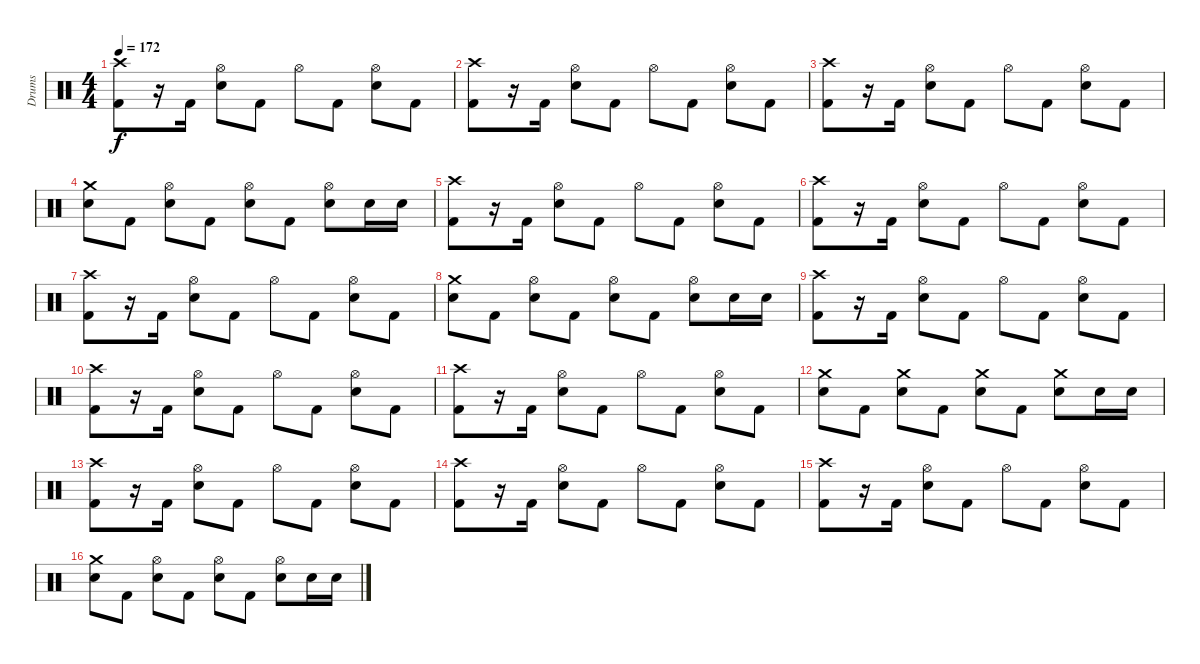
\track ("Drums" "Drums") {instrument percussion}
\staff {score}
\articulation defaults
\ts (4 4)
\tempo 172
\clef neutral
\ks c
("Crash high (hit)" "Kick (hit) 2").8{dy f} r.16 "Kick (hit) 2".16 ("Hi-Hat (open)" "Snare (hit) 2").8 "Kick (hit) 2".8 "Hi-Hat (open)".8 "Kick (hit) 2".8 ("Hi-Hat (open)" "Snare (hit) 2").8 "Kick (hit) 2".8 |
("Crash high (hit)" "Kick (hit) 2").8 r.16 "Kick (hit) 2".16 ("Hi-Hat (open)" "Snare (hit) 2").8 "Kick (hit) 2".8 "Hi-Hat (open)".8 "Kick (hit) 2".8 ("Hi-Hat (open)" "Snare (hit) 2").8 "Kick (hit) 2".8 |
("Crash high (hit)" "Kick (hit) 2").8 r.16 "Kick (hit) 2".16 ("Hi-Hat (open)" "Snare (hit) 2").8 "Kick (hit) 2".8 "Hi-Hat (open)".8 "Kick (hit) 2".8 ("Hi-Hat (open)" "Snare (hit) 2").8 "Kick (hit) 2".8 |
("Crash medium (hit)" "Snare (hit) 2").8 "Kick (hit) 2".8 ("Hi-Hat (open)" "Snare (hit) 2").8 "Kick (hit) 2".8 ("Hi-Hat (open)" "Snare (hit) 2").8 "Kick (hit) 2".8 ("Hi-Hat (open)" "Snare (hit) 2").8 "Snare (hit) 2".16 "Snare (hit) 2".16 |
("Crash high (hit)" "Kick (hit) 2").8 r.16 "Kick (hit) 2".16 ("Hi-Hat (open)" "Snare (hit) 2").8 "Kick (hit) 2".8 "Hi-Hat (open)".8 "Kick (hit) 2".8 ("Hi-Hat (open)" "Snare (hit) 2").8 "Kick (hit) 2".8 |
("Crash high (hit)" "Kick (hit) 2").8 r.16 "Kick (hit) 2".16 ("Hi-Hat (open)" "Snare (hit) 2").8 "Kick (hit) 2".8 "Hi-Hat (open)".8 "Kick (hit) 2".8 ("Hi-Hat (open)" "Snare (hit) 2").8 "Kick (hit) 2".8 |
("Crash high (hit)" "Kick (hit) 2").8 r.16 "Kick (hit) 2".16 ("Hi-Hat (open)" "Snare (hit) 2").8 "Kick (hit) 2".8 "Hi-Hat (open)".8 "Kick (hit) 2".8 ("Hi-Hat (open)" "Snare (hit) 2").8 "Kick (hit) 2".8 |
("Crash medium (hit)" "Snare (hit) 2").8 "Kick (hit) 2".8 ("Hi-Hat (open)" "Snare (hit) 2").8 "Kick (hit) 2".8 ("Hi-Hat (open)" "Snare (hit) 2").8 "Kick (hit) 2".8 ("Hi-Hat (open)" "Snare (hit) 2").8 "Snare (hit) 2".16 "Snare (hit) 2".16 |
("Crash high (hit)" "Kick (hit) 2").8 r.16 "Kick (hit) 2".16 ("Hi-Hat (open)" "Snare (hit) 2").8 "Kick (hit) 2".8 "Hi-Hat (open)".8 "Kick (hit) 2".8 ("Hi-Hat (open)" "Snare (hit) 2").8 "Kick (hit) 2".8 |
("Crash high (hit)" "Kick (hit) 2").8 r.16 "Kick (hit) 2".16 ("Hi-Hat (open)" "Snare (hit) 2").8 "Kick (hit) 2".8 "Hi-Hat (open)".8 "Kick (hit) 2".8 ("Hi-Hat (open)" "Snare (hit) 2").8 "Kick (hit) 2".8 |
("Crash high (hit)" "Kick (hit) 2").8 r.16 "Kick (hit) 2".16 ("Hi-Hat (open)" "Snare (hit) 2").8 "Kick (hit) 2".8 "Hi-Hat (open)".8 "Kick (hit) 2".8 ("Hi-Hat (open)" "Snare (hit) 2").8 "Kick (hit) 2".8 |
("Crash medium (hit)" "Snare (hit) 2").8 "Kick (hit) 2".8 ("Crash medium (hit)" "Snare (hit) 2").8 "Kick (hit) 2".8 ("Crash medium (hit)" "Snare (hit) 2").8 "Kick (hit) 2".8 ("Crash medium (hit)" "Snare (hit) 2").8 "Snare (hit) 2".16 "Snare (hit) 2".16 |
("Crash high (hit)" "Kick (hit) 2").8 r.16 "Kick (hit) 2".16 ("Hi-Hat (open)" "Snare (hit) 2").8 "Kick (hit) 2".8 "Hi-Hat (open)".8 "Kick (hit) 2".8 ("Hi-Hat (open)" "Snare (hit) 2").8 "Kick (hit) 2".8 |
("Crash high (hit)" "Kick (hit) 2").8 r.16 "Kick (hit) 2".16 ("Hi-Hat (open)" "Snare (hit) 2").8 "Kick (hit) 2".8 "Hi-Hat (open)".8 "Kick (hit) 2".8 ("Hi-Hat (open)" "Snare (hit) 2").8 "Kick (hit) 2".8 |
("Crash high (hit)" "Kick (hit) 2").8 r.16 "Kick (hit) 2".16 ("Hi-Hat (open)" "Snare (hit) 2").8 "Kick (hit) 2".8 "Hi-Hat (open)".8 "Kick (hit) 2".8 ("Hi-Hat (open)" "Snare (hit) 2").8 "Kick (hit) 2".8 |
("Crash medium (hit)" "Snare (hit) 2").8 "Kick (hit) 2".8 ("Hi-Hat (open)" "Snare (hit) 2").8 "Kick (hit) 2".8 ("Hi-Hat (open)" "Snare (hit) 2").8 "Kick (hit) 2".8 ("Hi-Hat (open)" "Snare (hit) 2").8 "Snare (hit) 2".16 "Snare (hit) 2".16
